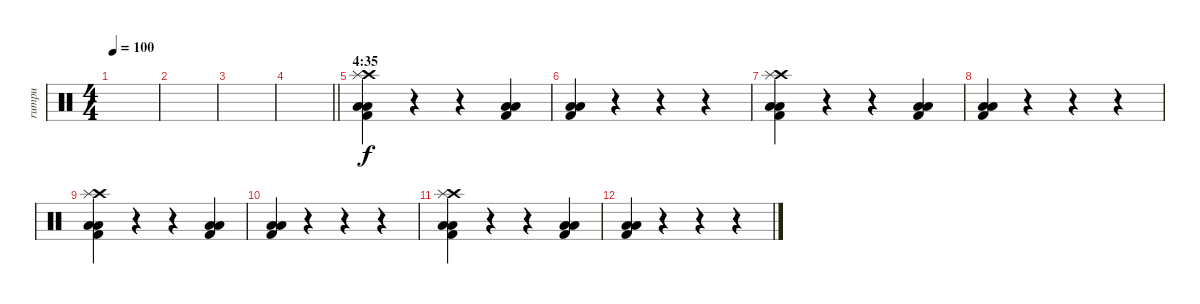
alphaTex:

\track ("rumpu" "rumpu") {instrument percussion}
\staff {score}
\articulation defaults
\ts (4 4)
\tempo 100
\clef neutral
\ks c
|
|
|
\barLineRight lightlight
|
\section ("" "4:35")
("Kick (hit) 2" "Low Tom (hit)" "Low Floor Tom (hit)" "Crash high (hit)" "Splash (hit)").4 r.4 r.4 ("Kick (hit) 2" "Low Tom (hit)" "Low Floor Tom (hit)").4 |
("Kick (hit) 2" "Low Tom (hit)" "Low Floor Tom (hit)").4 r.4 r.4 r.4 |
("Kick (hit) 2" "Low Tom (hit)" "Low Floor Tom (hit)" "Crash high (hit)" "Splash (hit)").4 r.4 r.4 ("Kick (hit) 2" "Low Tom (hit)" "Low Floor Tom (hit)").4 |
("Kick (hit) 2" "Low Tom (hit)" "Low Floor Tom (hit)").4 r.4 r.4 r.4 |
("Kick (hit) 2" "Low Tom (hit)" "Low Floor Tom (hit)" "Crash high (hit)" "Splash (hit)").4 r.4 r.4 ("Kick (hit) 2" "Low Tom (hit)" "Low Floor Tom (hit)").4 |
("Kick (hit) 2" "Low Tom (hit)" "Low Floor Tom (hit)").4 r.4 r.4 r.4 |
("Kick (hit) 2" "Low Tom (hit)" "Low Floor Tom (hit)" "Crash high (hit)" "Splash (hit)").4 r.4 r.4 ("Kick (hit) 2" "Low Tom (hit)" "Low Floor Tom (hit)").4 |
("Kick (hit) 2" "Low Tom (hit)" "Low Floor Tom (hit)").4 r.4 r.4 r.4
